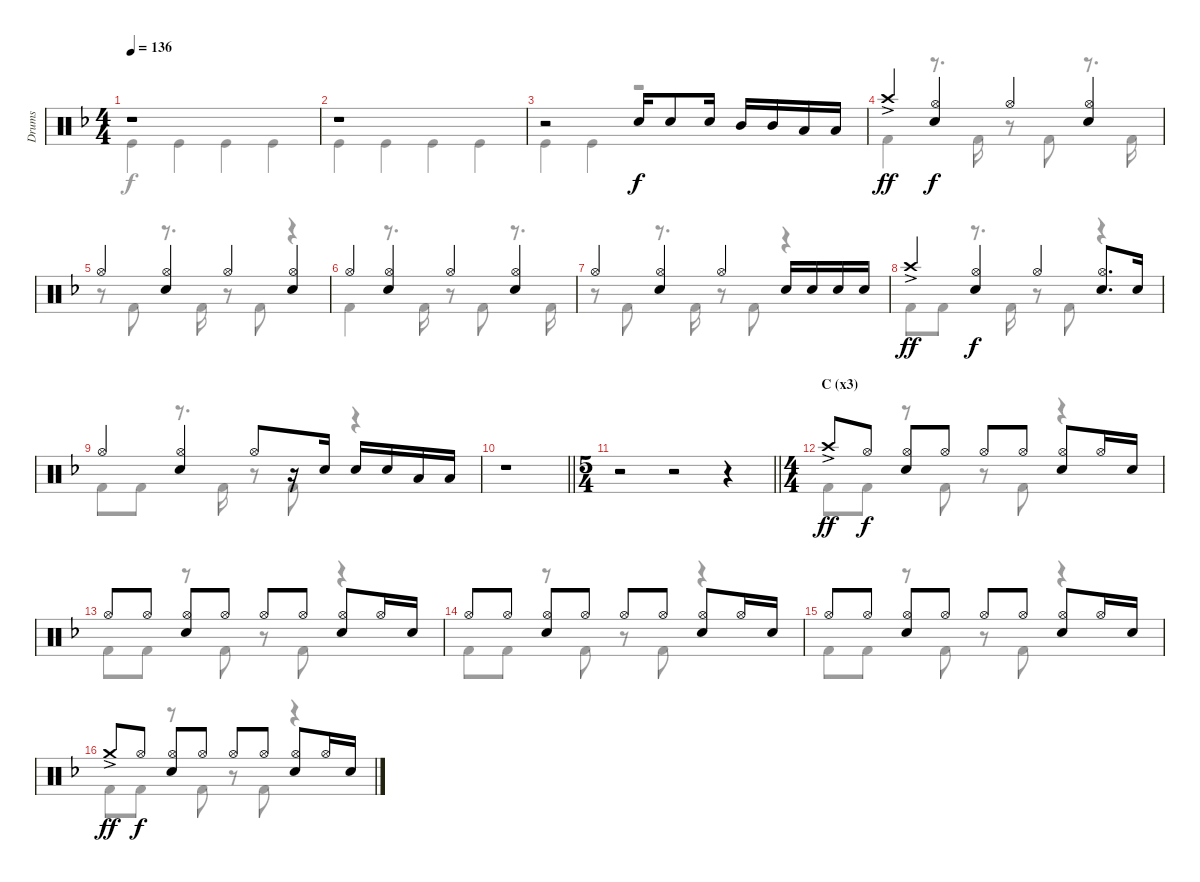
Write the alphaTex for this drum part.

\track ("Drums" "Drums") {instrument percussion}
\staff {score}
\articulation defaults
\voice
\ts (4 4)
\tempo 136
\clef neutral
\ks f
r.1{dy f} |
r.1 |
r.2 "Snare (hit) 2".16 "Snare (hit) 2".8 "Snare (hit) 2".16 "Mid Tom (hit)".16 "Mid Tom (hit)".16 "Low Tom (hit)".16 "Low Tom (hit)".16 |
"Crash high (hit)"{ac}.4{dy ff} ("Hi-Hat (open)" "Snare (hit) 2").4{dy f} "Hi-Hat (open)".4 ("Hi-Hat (open)" "Snare (hit) 2").4 |
"Hi-Hat (open)".4 ("Hi-Hat (open)" "Snare (hit) 2").4 "Hi-Hat (open)".4 ("Hi-Hat (open)" "Snare (hit) 2").4 |
"Hi-Hat (open)".4 ("Hi-Hat (open)" "Snare (hit) 2").4 "Hi-Hat (open)".4 ("Hi-Hat (open)" "Snare (hit) 2").4 |
"Hi-Hat (open)".4 ("Hi-Hat (open)" "Snare (hit) 2").4 "Hi-Hat (open)".4 "Snare (hit) 2".16 "Snare (hit) 2".16 "Snare (hit) 2".16 "Snare (hit) 2".16 |
"Crash high (hit)"{ac}.4{dy ff} ("Hi-Hat (open)" "Snare (hit) 2").4{dy f} "Hi-Hat (open)".4 ("Hi-Hat (open)" "Snare (hit) 2").8{d} "Snare (hit) 2".16 |
"Hi-Hat (open)".4 ("Hi-Hat (open)" "Snare (hit) 2").4 "Hi-Hat (open)".8 r.16 "Snare (hit) 2".16 "Snare (hit) 2".16 "Snare (hit) 2".16 "Low Tom (hit)".16 "Low Tom (hit)".16 |
\barLineRight lightlight
r.1 |
\ts (5 4)
\barLineRight lightlight
r.2 r.2 r.4 |
\ts (4 4)
\section ("" "C (x3)")
"Crash high (hit)"{ac}.8{dy ff} "Hi-Hat (open)".8{dy f} ("Hi-Hat (open)" "Snare (hit) 2").8 "Hi-Hat (open)".8 "Hi-Hat (open)".8 "Hi-Hat (open)".8 ("Hi-Hat (open)" "Snare (hit) 2").8 "Hi-Hat (open)".16 "Snare (hit) 2".16 |
"Hi-Hat (open)".8 "Hi-Hat (open)".8 ("Hi-Hat (open)" "Snare (hit) 2").8 "Hi-Hat (open)".8 "Hi-Hat (open)".8 "Hi-Hat (open)".8 ("Hi-Hat (open)" "Snare (hit) 2").8 "Hi-Hat (open)".16 "Snare (hit) 2".16 |
"Hi-Hat (open)".8 "Hi-Hat (open)".8 ("Hi-Hat (open)" "Snare (hit) 2").8 "Hi-Hat (open)".8 "Hi-Hat (open)".8 "Hi-Hat (open)".8 ("Hi-Hat (open)" "Snare (hit) 2").8 "Hi-Hat (open)".16 "Snare (hit) 2".16 |
"Hi-Hat (open)".8 "Hi-Hat (open)".8 ("Hi-Hat (open)" "Snare (hit) 2").8 "Hi-Hat (open)".8 "Hi-Hat (open)".8 "Hi-Hat (open)".8 ("Hi-Hat (open)" "Snare (hit) 2").8 "Hi-Hat (open)".16 "Snare (hit) 2".16 |
"Crash medium (hit)"{ac}.8{dy ff} "Hi-Hat (open)".8{dy f} ("Hi-Hat (open)" "Snare (hit) 2").8 "Hi-Hat (open)".8 "Hi-Hat (open)".8 "Hi-Hat (open)".8 ("Hi-Hat (open)" "Snare (hit) 2").8 "Hi-Hat (open)".16 "Snare (hit) 2".16
\voice
\clef neutral
\ottava regular
\simile none
\ks f "Kick (hit)".4{dy f} "Kick (hit)".4 "Kick (hit)".4 "Kick (hit)".4
|
"Kick (hit)".4 "Kick (hit)".4 "Kick (hit)".4 "Kick (hit)".4 |
"Kick (hit)".4 "Kick (hit)".4 r.2 |
"Kick (hit) 2".4 r.8{d} "Kick (hit) 2".16 r.8 "Kick (hit) 2".8 r.8{d} "Kick (hit) 2".16 |
r.8 "Kick (hit) 2".8 r.8{d} "Kick (hit) 2".16 r.8 "Kick (hit) 2".8 r.4 |
"Kick (hit) 2".4 r.8{d} "Kick (hit) 2".16 r.8 "Kick (hit) 2".8 r.8{d} "Kick (hit) 2".16 |
r.8 "Kick (hit) 2".8 r.8{d} "Kick (hit) 2".16 r.8 "Kick (hit) 2".8 r.4 |
"Kick (hit) 2".8 "Kick (hit) 2".8 r.8{d} "Kick (hit) 2".16 r.8 "Kick (hit) 2".8 r.4 |
"Kick (hit) 2".8 "Kick (hit) 2".8 r.8{d} "Kick (hit) 2".16 r.8 "Kick (hit) 2".8 r.4 |
\barLineRight lightlight
|
\barLineRight lightlight
|
"Kick (hit) 2".8 "Kick (hit) 2".8 r.8 "Kick (hit) 2".8 r.8 "Kick (hit) 2".8 r.4 |
"Kick (hit) 2".8 "Kick (hit) 2".8 r.8 "Kick (hit) 2".8 r.8 "Kick (hit) 2".8 r.4 |
"Kick (hit) 2".8 "Kick (hit) 2".8 r.8 "Kick (hit) 2".8 r.8 "Kick (hit) 2".8 r.4 |
"Kick (hit) 2".8 "Kick (hit) 2".8 r.8 "Kick (hit) 2".8 r.8 "Kick (hit) 2".8 r.4 |
"Kick (hit) 2".8 "Kick (hit) 2".8 r.8 "Kick (hit) 2".8 r.8 "Kick (hit) 2".8 r.4
